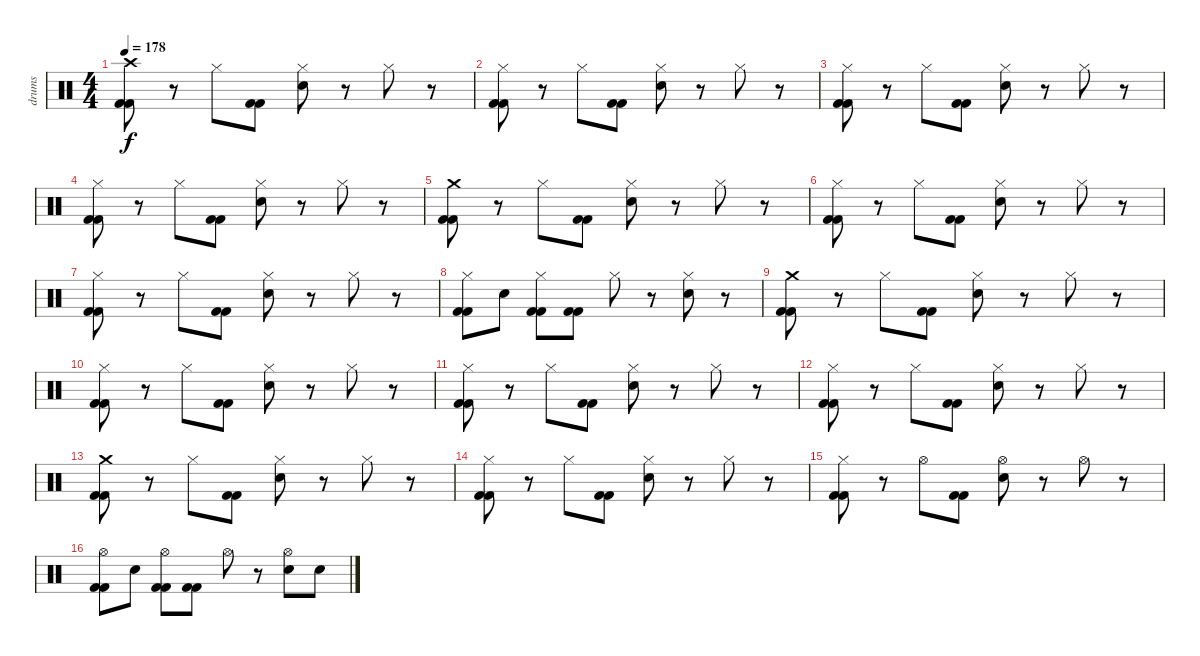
\track ("drums" "drums") {instrument percussion}
\staff {score}
\articulation defaults
\ts (4 4)
\tempo 178
\clef neutral
\ks c
("Crash high (hit)" "Kick (hit) 2" "Kick (hit) 2").8{dy f} r.8 "Hi-Hat (closed)".8 ("Kick (hit) 2" "Kick (hit) 2").8 ("Hi-Hat (closed)" "Electric Snare (hit)").8 r.8 "Hi-Hat (closed)".8 r.8 |
("Hi-Hat (closed)" "Kick (hit) 2" "Kick (hit) 2").8 r.8 "Hi-Hat (closed)".8 ("Kick (hit) 2" "Kick (hit) 2").8 ("Hi-Hat (closed)" "Electric Snare (hit)").8 r.8 "Hi-Hat (closed)".8 r.8 |
("Hi-Hat (closed)" "Kick (hit) 2" "Kick (hit) 2").8 r.8 "Hi-Hat (closed)".8 ("Kick (hit) 2" "Kick (hit) 2").8 ("Hi-Hat (closed)" "Electric Snare (hit)").8 r.8 "Hi-Hat (closed)".8 r.8 |
("Hi-Hat (closed)" "Kick (hit) 2" "Kick (hit) 2").8 r.8 "Hi-Hat (closed)".8 ("Kick (hit) 2" "Kick (hit) 2").8 ("Hi-Hat (closed)" "Electric Snare (hit)").8 r.8 "Hi-Hat (closed)".8 r.8 |
("Crash medium (hit)" "Kick (hit) 2" "Kick (hit) 2").8 r.8 "Hi-Hat (closed)".8 ("Kick (hit) 2" "Kick (hit) 2").8 ("Hi-Hat (closed)" "Electric Snare (hit)").8 r.8 "Hi-Hat (closed)".8 r.8 |
("Hi-Hat (closed)" "Kick (hit) 2" "Kick (hit) 2").8 r.8 "Hi-Hat (closed)".8 ("Kick (hit) 2" "Kick (hit) 2").8 ("Hi-Hat (closed)" "Electric Snare (hit)").8 r.8 "Hi-Hat (closed)".8 r.8 |
("Hi-Hat (closed)" "Kick (hit) 2" "Kick (hit) 2").8 r.8 "Hi-Hat (closed)".8 ("Kick (hit) 2" "Kick (hit) 2").8 ("Hi-Hat (closed)" "Electric Snare (hit)").8 r.8 "Hi-Hat (closed)".8 r.8 |
("Hi-Hat (closed)" "Kick (hit) 2" "Kick (hit) 2").8 "Electric Snare (hit)".8 ("Hi-Hat (closed)" "Kick (hit) 2" "Kick (hit) 2").8 ("Kick (hit) 2" "Kick (hit) 2").8 "Hi-Hat (closed)".8 r.8 ("Hi-Hat (closed)" "Electric Snare (hit)").8 r.8 |
("Crash medium (hit)" "Kick (hit) 2" "Kick (hit) 2").8 r.8 "Hi-Hat (closed)".8 ("Kick (hit) 2" "Kick (hit) 2").8 ("Hi-Hat (closed)" "Electric Snare (hit)").8 r.8 "Hi-Hat (closed)".8 r.8 |
("Hi-Hat (closed)" "Kick (hit) 2" "Kick (hit) 2").8 r.8 "Hi-Hat (closed)".8 ("Kick (hit) 2" "Kick (hit) 2").8 ("Hi-Hat (closed)" "Electric Snare (hit)").8 r.8 "Hi-Hat (closed)".8 r.8 |
("Hi-Hat (closed)" "Kick (hit) 2" "Kick (hit) 2").8 r.8 "Hi-Hat (closed)".8 ("Kick (hit) 2" "Kick (hit) 2").8 ("Hi-Hat (closed)" "Electric Snare (hit)").8 r.8 "Hi-Hat (closed)".8 r.8 |
("Hi-Hat (closed)" "Kick (hit) 2" "Kick (hit) 2").8 r.8 "Hi-Hat (closed)".8 ("Kick (hit) 2" "Kick (hit) 2").8 ("Hi-Hat (closed)" "Electric Snare (hit)").8 r.8 "Hi-Hat (closed)".8 r.8 |
("Crash medium (hit)" "Kick (hit) 2" "Kick (hit) 2").8 r.8 "Hi-Hat (closed)".8 ("Kick (hit) 2" "Kick (hit) 2").8 ("Hi-Hat (closed)" "Electric Snare (hit)").8 r.8 "Hi-Hat (closed)".8 r.8 |
("Hi-Hat (closed)" "Kick (hit) 2" "Kick (hit) 2").8 r.8 "Hi-Hat (closed)".8 ("Kick (hit) 2" "Kick (hit) 2").8 ("Hi-Hat (closed)" "Electric Snare (hit)").8 r.8 "Hi-Hat (closed)".8 r.8 |
("Hi-Hat (closed)" "Kick (hit) 2" "Kick (hit) 2").8 r.8 "Hi-Hat (open)".8 ("Kick (hit) 2" "Kick (hit) 2").8 ("Hi-Hat (open)" "Electric Snare (hit)").8 r.8 "Hi-Hat (open)".8 r.8 |
("Hi-Hat (open)" "Kick (hit) 2" "Kick (hit) 2").8 "Electric Snare (hit)".8 ("Hi-Hat (open)" "Kick (hit) 2" "Kick (hit) 2").8 ("Kick (hit) 2" "Kick (hit) 2").8 "Hi-Hat (open)".8 r.8 ("Hi-Hat (open)" "Electric Snare (hit)").8 "Electric Snare (hit)".8
